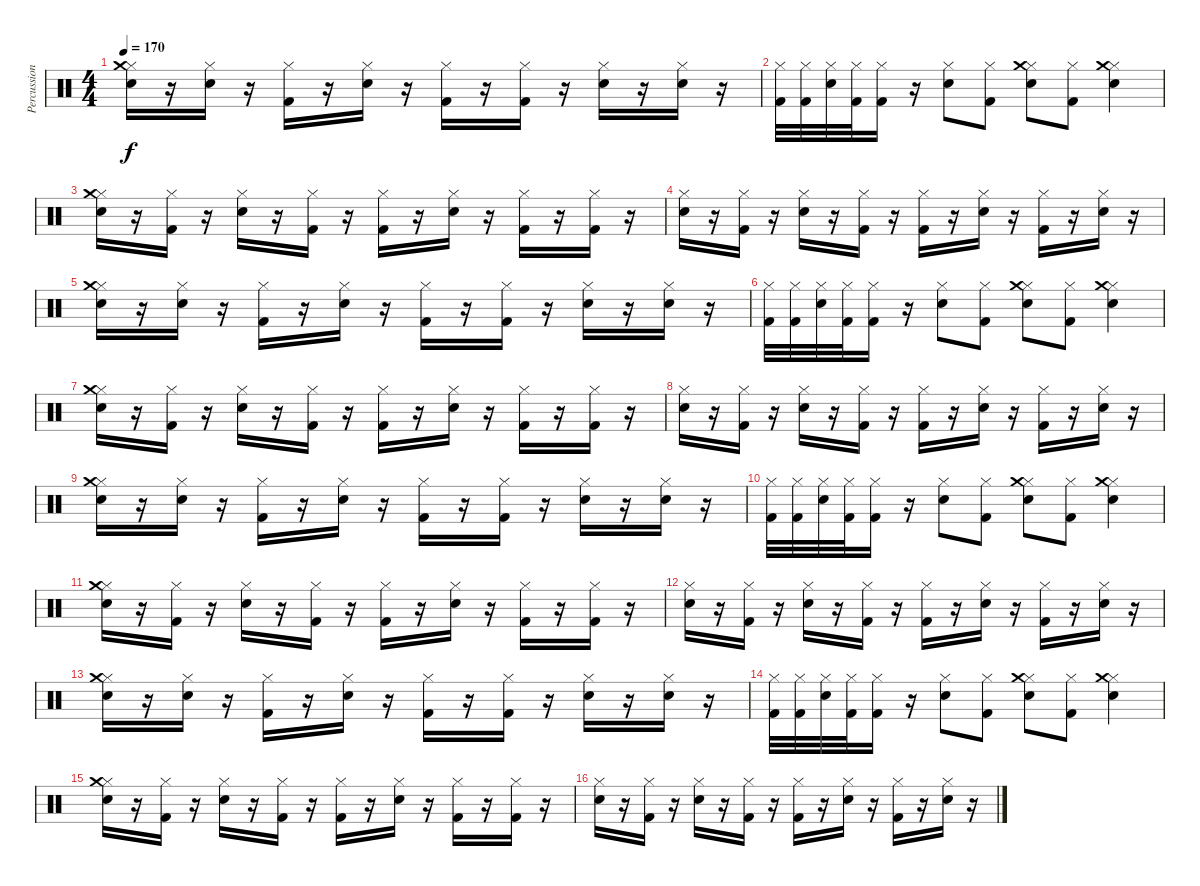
\track ("Percussion" "Percussion") {instrument percussion}
\staff {score}
\articulation defaults
\ts (4 4)
\tempo 170
\clef neutral
\ks c
("Hi-Hat (closed)" "Snare (hit) 2" "Crash medium (hit)").16{dy f} r.16 ("Snare (hit) 2" "Hi-Hat (closed)").16 r.16 ("Kick (hit) 2" "Hi-Hat (closed)").16 r.16 ("Snare (hit) 2" "Hi-Hat (closed)").16 r.16 ("Kick (hit) 2" "Hi-Hat (closed)").16 r.16 ("Kick (hit) 2" "Hi-Hat (closed)").16 r.16 ("Snare (hit) 2" "Hi-Hat (closed)").16 r.16 ("Snare (hit) 2" "Hi-Hat (closed)").16 r.16 |
("Kick (hit) 2" "Hi-Hat (closed)").32 ("Kick (hit) 2" "Hi-Hat (closed)").32 ("Snare (hit) 2" "Hi-Hat (closed)").32 ("Kick (hit) 2" "Hi-Hat (closed)").32 ("Kick (hit) 2" "Hi-Hat (closed)").16 r.16 ("Snare (hit) 2" "Hi-Hat (closed)").8 ("Kick (hit) 2" "Hi-Hat (closed)").8 ("Snare (hit) 2" "Hi-Hat (closed)" "Crash medium (hit)").8 ("Kick (hit) 2" "Hi-Hat (closed)").8 ("Snare (hit) 2" "Hi-Hat (closed)" "Crash medium (hit)").4 |
("Snare (hit) 2" "Hi-Hat (closed)" "Crash medium (hit)").16 r.16 ("Kick (hit) 2" "Hi-Hat (closed)").16 r.16 ("Snare (hit) 2" "Hi-Hat (closed)").16 r.16 ("Kick (hit) 2" "Hi-Hat (closed)").16 r.16 ("Kick (hit) 2" "Hi-Hat (closed)").16 r.16 ("Snare (hit) 2" "Hi-Hat (closed)").16 r.16 ("Kick (hit) 2" "Hi-Hat (closed)").16 r.16 ("Kick (hit) 2" "Hi-Hat (closed)").16 r.16 |
("Snare (hit) 2" "Hi-Hat (closed)").16 r.16 ("Kick (hit) 2" "Hi-Hat (closed)").16 r.16 ("Snare (hit) 2" "Hi-Hat (closed)").16 r.16 ("Kick (hit) 2" "Hi-Hat (closed)").16 r.16 ("Kick (hit) 2" "Hi-Hat (closed)").16 r.16 ("Snare (hit) 2" "Hi-Hat (closed)").16 r.16 ("Kick (hit) 2" "Hi-Hat (closed)").16 r.16 ("Snare (hit) 2" "Hi-Hat (closed)").16 r.16 |
("Hi-Hat (closed)" "Snare (hit) 2" "Crash medium (hit)").16 r.16 ("Snare (hit) 2" "Hi-Hat (closed)").16 r.16 ("Kick (hit) 2" "Hi-Hat (closed)").16 r.16 ("Snare (hit) 2" "Hi-Hat (closed)").16 r.16 ("Kick (hit) 2" "Hi-Hat (closed)").16 r.16 ("Kick (hit) 2" "Hi-Hat (closed)").16 r.16 ("Snare (hit) 2" "Hi-Hat (closed)").16 r.16 ("Snare (hit) 2" "Hi-Hat (closed)").16 r.16 |
("Kick (hit) 2" "Hi-Hat (closed)").32 ("Kick (hit) 2" "Hi-Hat (closed)").32 ("Snare (hit) 2" "Hi-Hat (closed)").32 ("Kick (hit) 2" "Hi-Hat (closed)").32 ("Kick (hit) 2" "Hi-Hat (closed)").16 r.16 ("Snare (hit) 2" "Hi-Hat (closed)").8 ("Kick (hit) 2" "Hi-Hat (closed)").8 ("Snare (hit) 2" "Hi-Hat (closed)" "Crash medium (hit)").8 ("Kick (hit) 2" "Hi-Hat (closed)").8 ("Snare (hit) 2" "Hi-Hat (closed)" "Crash medium (hit)").4 |
("Snare (hit) 2" "Hi-Hat (closed)" "Crash medium (hit)").16 r.16 ("Kick (hit) 2" "Hi-Hat (closed)").16 r.16 ("Snare (hit) 2" "Hi-Hat (closed)").16 r.16 ("Kick (hit) 2" "Hi-Hat (closed)").16 r.16 ("Kick (hit) 2" "Hi-Hat (closed)").16 r.16 ("Snare (hit) 2" "Hi-Hat (closed)").16 r.16 ("Kick (hit) 2" "Hi-Hat (closed)").16 r.16 ("Kick (hit) 2" "Hi-Hat (closed)").16 r.16 |
("Snare (hit) 2" "Hi-Hat (closed)").16 r.16 ("Kick (hit) 2" "Hi-Hat (closed)").16 r.16 ("Snare (hit) 2" "Hi-Hat (closed)").16 r.16 ("Kick (hit) 2" "Hi-Hat (closed)").16 r.16 ("Kick (hit) 2" "Hi-Hat (closed)").16 r.16 ("Snare (hit) 2" "Hi-Hat (closed)").16 r.16 ("Kick (hit) 2" "Hi-Hat (closed)").16 r.16 ("Snare (hit) 2" "Hi-Hat (closed)").16 r.16 |
("Hi-Hat (closed)" "Snare (hit) 2" "Crash medium (hit)").16 r.16 ("Snare (hit) 2" "Hi-Hat (closed)").16 r.16 ("Kick (hit) 2" "Hi-Hat (closed)").16 r.16 ("Snare (hit) 2" "Hi-Hat (closed)").16 r.16 ("Kick (hit) 2" "Hi-Hat (closed)").16 r.16 ("Kick (hit) 2" "Hi-Hat (closed)").16 r.16 ("Snare (hit) 2" "Hi-Hat (closed)").16 r.16 ("Snare (hit) 2" "Hi-Hat (closed)").16 r.16 |
("Kick (hit) 2" "Hi-Hat (closed)").32 ("Kick (hit) 2" "Hi-Hat (closed)").32 ("Snare (hit) 2" "Hi-Hat (closed)").32 ("Kick (hit) 2" "Hi-Hat (closed)").32 ("Kick (hit) 2" "Hi-Hat (closed)").16 r.16 ("Snare (hit) 2" "Hi-Hat (closed)").8 ("Kick (hit) 2" "Hi-Hat (closed)").8 ("Snare (hit) 2" "Hi-Hat (closed)" "Crash medium (hit)").8 ("Kick (hit) 2" "Hi-Hat (closed)").8 ("Snare (hit) 2" "Hi-Hat (closed)" "Crash medium (hit)").4 |
("Snare (hit) 2" "Hi-Hat (closed)" "Crash medium (hit)").16 r.16 ("Kick (hit) 2" "Hi-Hat (closed)").16 r.16 ("Snare (hit) 2" "Hi-Hat (closed)").16 r.16 ("Kick (hit) 2" "Hi-Hat (closed)").16 r.16 ("Kick (hit) 2" "Hi-Hat (closed)").16 r.16 ("Snare (hit) 2" "Hi-Hat (closed)").16 r.16 ("Kick (hit) 2" "Hi-Hat (closed)").16 r.16 ("Kick (hit) 2" "Hi-Hat (closed)").16 r.16 |
("Snare (hit) 2" "Hi-Hat (closed)").16 r.16 ("Kick (hit) 2" "Hi-Hat (closed)").16 r.16 ("Snare (hit) 2" "Hi-Hat (closed)").16 r.16 ("Kick (hit) 2" "Hi-Hat (closed)").16 r.16 ("Kick (hit) 2" "Hi-Hat (closed)").16 r.16 ("Snare (hit) 2" "Hi-Hat (closed)").16 r.16 ("Kick (hit) 2" "Hi-Hat (closed)").16 r.16 ("Snare (hit) 2" "Hi-Hat (closed)").16 r.16 |
("Hi-Hat (closed)" "Snare (hit) 2" "Crash medium (hit)").16 r.16 ("Snare (hit) 2" "Hi-Hat (closed)").16 r.16 ("Kick (hit) 2" "Hi-Hat (closed)").16 r.16 ("Snare (hit) 2" "Hi-Hat (closed)").16 r.16 ("Kick (hit) 2" "Hi-Hat (closed)").16 r.16 ("Kick (hit) 2" "Hi-Hat (closed)").16 r.16 ("Snare (hit) 2" "Hi-Hat (closed)").16 r.16 ("Snare (hit) 2" "Hi-Hat (closed)").16 r.16 |
("Kick (hit) 2" "Hi-Hat (closed)").32 ("Kick (hit) 2" "Hi-Hat (closed)").32 ("Snare (hit) 2" "Hi-Hat (closed)").32 ("Kick (hit) 2" "Hi-Hat (closed)").32 ("Kick (hit) 2" "Hi-Hat (closed)").16 r.16 ("Snare (hit) 2" "Hi-Hat (closed)").8 ("Kick (hit) 2" "Hi-Hat (closed)").8 ("Snare (hit) 2" "Hi-Hat (closed)" "Crash medium (hit)").8 ("Kick (hit) 2" "Hi-Hat (closed)").8 ("Snare (hit) 2" "Hi-Hat (closed)" "Crash medium (hit)").4 |
("Snare (hit) 2" "Hi-Hat (closed)" "Crash medium (hit)").16 r.16 ("Kick (hit) 2" "Hi-Hat (closed)").16 r.16 ("Snare (hit) 2" "Hi-Hat (closed)").16 r.16 ("Kick (hit) 2" "Hi-Hat (closed)").16 r.16 ("Kick (hit) 2" "Hi-Hat (closed)").16 r.16 ("Snare (hit) 2" "Hi-Hat (closed)").16 r.16 ("Kick (hit) 2" "Hi-Hat (closed)").16 r.16 ("Kick (hit) 2" "Hi-Hat (closed)").16 r.16 |
("Snare (hit) 2" "Hi-Hat (closed)").16 r.16 ("Kick (hit) 2" "Hi-Hat (closed)").16 r.16 ("Snare (hit) 2" "Hi-Hat (closed)").16 r.16 ("Kick (hit) 2" "Hi-Hat (closed)").16 r.16 ("Kick (hit) 2" "Hi-Hat (closed)").16 r.16 ("Snare (hit) 2" "Hi-Hat (closed)").16 r.16 ("Kick (hit) 2" "Hi-Hat (closed)").16 r.16 ("Snare (hit) 2" "Hi-Hat (closed)").16 r.16
